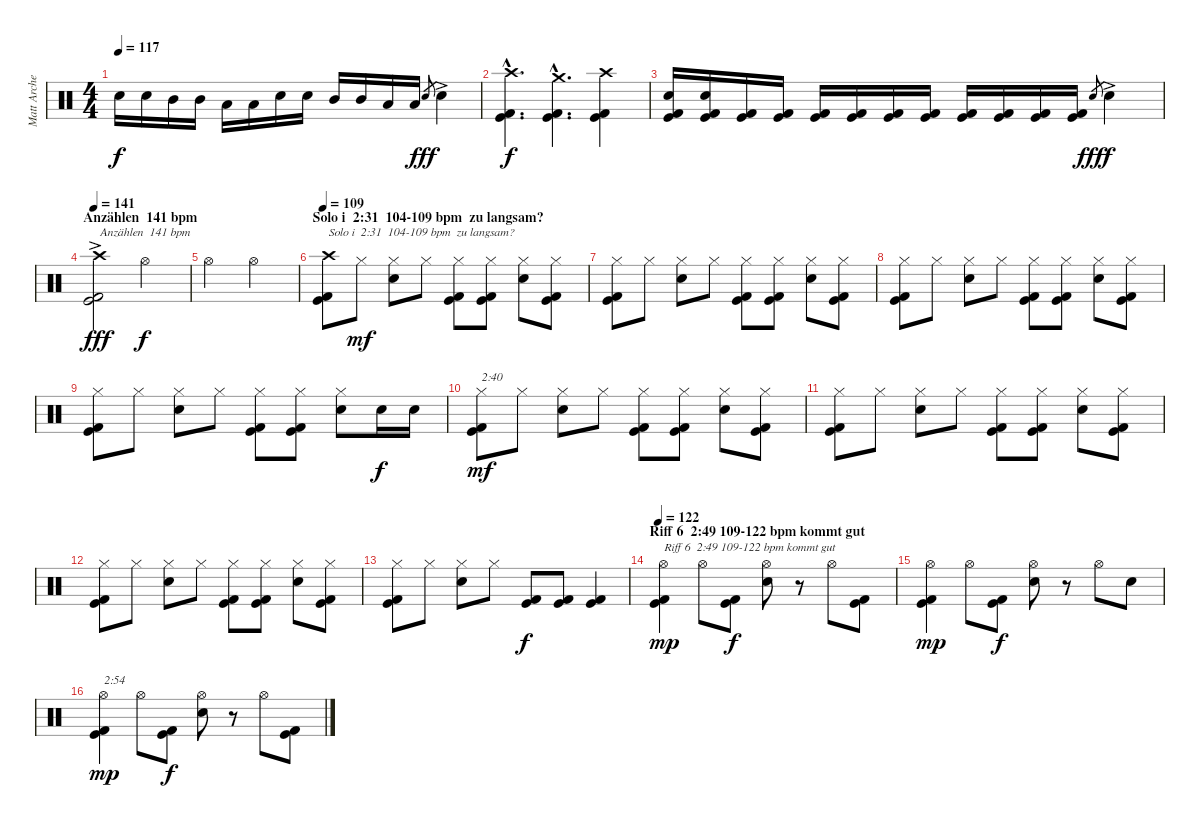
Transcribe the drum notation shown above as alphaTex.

\track ("Matt Archer" "Matt Arche") {instrument percussion}
\staff {score}
\articulation defaults
\ts (4 4)
\tempo 117
\clef neutral
\ks c "Electric Snare (hit)".16{dy f} "Electric Snare (hit)".16 "Mid Tom (hit)".16 "Mid Tom (hit)".16 "Low Tom (hit)".16 "Low Tom (hit)".16 "Electric Snare (hit)".16 "Electric Snare (hit)".16 "Mid Tom (hit)".16 "Mid Tom (hit)".16 "Low Tom (hit)".16 "Low Tom (hit)".16 "Electric Snare (hit)".8{gr dy fff} "Electric Snare (hit)"{ac}.4
|
("Kick (hit)"{hac} "Kick (hit) 2"{hac} "Crash high (hit)"{hac}).4{d dy f} ("Kick (hit)"{hac} "Kick (hit) 2"{hac} "Crash medium (hit)"{hac}).4{d} ("Kick (hit)" "Kick (hit) 2" "Crash high (hit)").4 |
("Kick (hit)" "Kick (hit) 2" "Electric Snare (hit)").16 ("Kick (hit)" "Kick (hit) 2" "Electric Snare (hit)").16 ("Kick (hit)" "Kick (hit) 2").16 ("Kick (hit)" "Kick (hit) 2").16 ("Kick (hit)" "Kick (hit) 2").16 ("Kick (hit)" "Kick (hit) 2").16 ("Kick (hit)" "Kick (hit) 2").16 ("Kick (hit)" "Kick (hit) 2").16 ("Kick (hit)" "Kick (hit) 2").16 ("Kick (hit)" "Kick (hit) 2").16 ("Kick (hit)" "Kick (hit) 2").16 ("Kick (hit)" "Kick (hit) 2").16 "Electric Snare (hit)".8{gr dy fff} "Electric Snare (hit)"{ac}.4{dy f} |
\section ("" "Anzählen  141 bpm")
\tempo 141
("Kick (hit)" "Kick (hit) 2" "Crash high (hit)"{ac}).2{txt "Anzählen  141 bpm" dy fff} "Hi-Hat (open)".2{dy f} |
"Hi-Hat (open)".2 "Hi-Hat (open)".2 |
\section ("" "Solo i  2:31  104-109 bpm  zu langsam?")
\tempo 109
("Kick (hit)" "Kick (hit) 2" "Crash high (hit)").8{txt "Solo i  2:31  104-109 bpm  zu langsam?"} "Hi-Hat (closed)".8{dy mf} ("Electric Snare (hit)" "Hi-Hat (closed)").8 "Hi-Hat (closed)".8 ("Kick (hit)" "Kick (hit) 2" "Hi-Hat (closed)").8 ("Kick (hit)" "Kick (hit) 2" "Hi-Hat (closed)").8 ("Electric Snare (hit)" "Hi-Hat (closed)").8 ("Kick (hit)" "Kick (hit) 2" "Hi-Hat (closed)").8 |
("Kick (hit)" "Kick (hit) 2" "Hi-Hat (closed)").8 "Hi-Hat (closed)".8 ("Electric Snare (hit)" "Hi-Hat (closed)").8 "Hi-Hat (closed)".8 ("Kick (hit)" "Kick (hit) 2" "Hi-Hat (closed)").8 ("Kick (hit)" "Kick (hit) 2" "Hi-Hat (closed)").8 ("Electric Snare (hit)" "Hi-Hat (closed)").8 ("Kick (hit)" "Kick (hit) 2" "Hi-Hat (closed)").8 |
("Kick (hit)" "Kick (hit) 2" "Hi-Hat (closed)").8 "Hi-Hat (closed)".8 ("Electric Snare (hit)" "Hi-Hat (closed)").8 "Hi-Hat (closed)".8 ("Kick (hit)" "Kick (hit) 2" "Hi-Hat (closed)").8 ("Kick (hit)" "Kick (hit) 2" "Hi-Hat (closed)").8 ("Electric Snare (hit)" "Hi-Hat (closed)").8 ("Kick (hit)" "Kick (hit) 2" "Hi-Hat (closed)").8 |
("Kick (hit)" "Kick (hit) 2" "Hi-Hat (closed)").8 "Hi-Hat (closed)".8 ("Electric Snare (hit)" "Hi-Hat (closed)").8 "Hi-Hat (closed)".8 ("Kick (hit)" "Kick (hit) 2" "Hi-Hat (closed)").8 ("Kick (hit)" "Kick (hit) 2" "Hi-Hat (closed)").8 ("Electric Snare (hit)" "Hi-Hat (closed)").8 "Electric Snare (hit)".16{dy f} "Electric Snare (hit)".16 |
("Kick (hit)" "Kick (hit) 2" "Hi-Hat (closed)").8{txt "2:40" dy mf} "Hi-Hat (closed)".8 ("Electric Snare (hit)" "Hi-Hat (closed)").8 "Hi-Hat (closed)".8 ("Kick (hit)" "Kick (hit) 2" "Hi-Hat (closed)").8 ("Kick (hit)" "Kick (hit) 2" "Hi-Hat (closed)").8 ("Electric Snare (hit)" "Hi-Hat (closed)").8 ("Kick (hit)" "Kick (hit) 2" "Hi-Hat (closed)").8 |
("Kick (hit)" "Kick (hit) 2" "Hi-Hat (closed)").8 "Hi-Hat (closed)".8 ("Electric Snare (hit)" "Hi-Hat (closed)").8 "Hi-Hat (closed)".8 ("Kick (hit)" "Kick (hit) 2" "Hi-Hat (closed)").8 ("Kick (hit)" "Kick (hit) 2" "Hi-Hat (closed)").8 ("Electric Snare (hit)" "Hi-Hat (closed)").8 ("Kick (hit)" "Kick (hit) 2" "Hi-Hat (closed)").8 |
("Kick (hit)" "Kick (hit) 2" "Hi-Hat (closed)").8 "Hi-Hat (closed)".8 ("Electric Snare (hit)" "Hi-Hat (closed)").8 "Hi-Hat (closed)".8 ("Kick (hit)" "Kick (hit) 2" "Hi-Hat (closed)").8 ("Kick (hit)" "Kick (hit) 2" "Hi-Hat (closed)").8 ("Electric Snare (hit)" "Hi-Hat (closed)").8 ("Kick (hit)" "Kick (hit) 2" "Hi-Hat (closed)").8 |
("Kick (hit)" "Kick (hit) 2" "Hi-Hat (closed)").8 "Hi-Hat (closed)".8 ("Electric Snare (hit)" "Hi-Hat (closed)").8 "Hi-Hat (closed)".8 ("Kick (hit)" "Kick (hit) 2").8{dy f} ("Kick (hit)" "Kick (hit) 2").8 ("Kick (hit)" "Kick (hit) 2").4 |
\section ("" "Riff 6  2:49 109-122 bpm kommt gut")
\tempo 122
("Kick (hit)" "Kick (hit) 2" "Hi-Hat (open)").4{txt "Riff 6  2:49 109-122 bpm kommt gut" dy mp} "Hi-Hat (open)".8 ("Kick (hit)" "Kick (hit) 2").8{dy f} ("Electric Snare (hit)" "Hi-Hat (open)").8 r.8 "Hi-Hat (open)".8 ("Kick (hit)" "Kick (hit) 2").8 |
("Kick (hit)" "Kick (hit) 2" "Hi-Hat (open)").4{dy mp} "Hi-Hat (open)".8 ("Kick (hit)" "Kick (hit) 2").8{dy f} ("Electric Snare (hit)" "Hi-Hat (open)").8 r.8 "Hi-Hat (open)".8 "Electric Snare (hit)".8 |
("Kick (hit)" "Kick (hit) 2" "Hi-Hat (open)").4{txt "2:54" dy mp} "Hi-Hat (open)".8 ("Kick (hit)" "Kick (hit) 2").8{dy f} ("Electric Snare (hit)" "Hi-Hat (open)").8 r.8 "Hi-Hat (open)".8 ("Kick (hit)" "Kick (hit) 2").8
